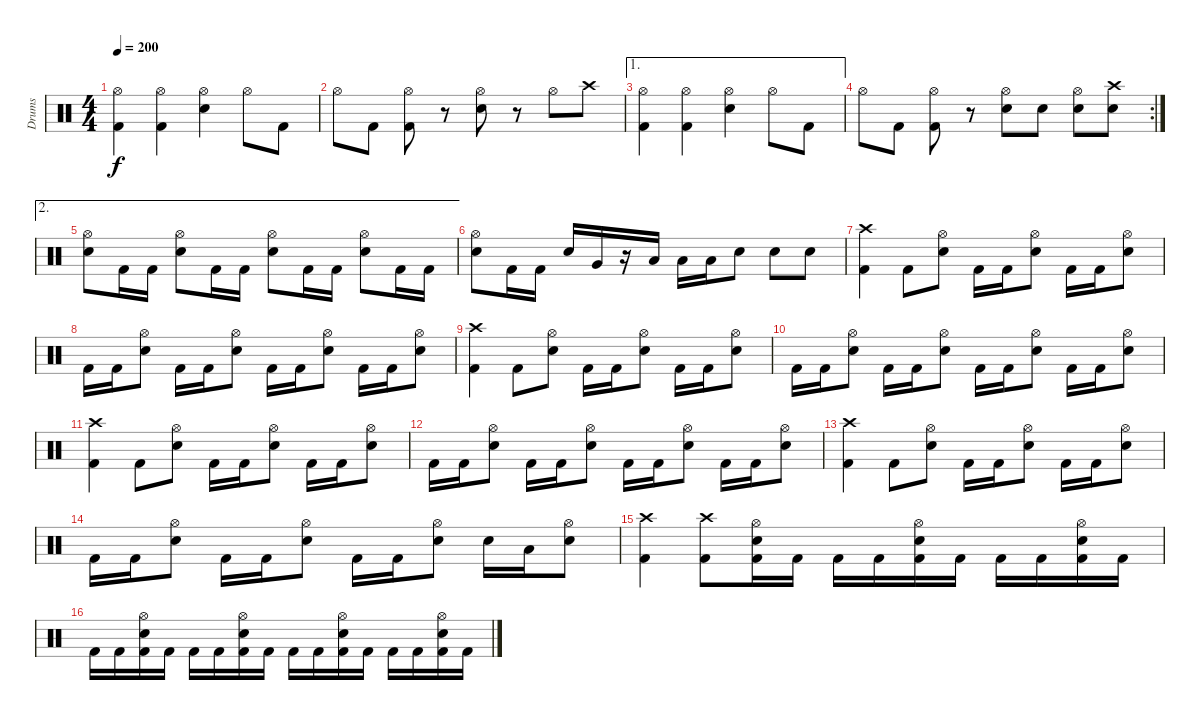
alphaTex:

\track ("Drums" "Drums") {instrument percussion}
\staff {score}
\articulation defaults
\ts (4 4)
\tempo 200
\clef neutral
\ks c
("Hi-Hat (open)" "Kick (hit) 2").4{dy f} ("Hi-Hat (open)" "Kick (hit) 2").4 ("Hi-Hat (open)" "Snare (hit) 2").4 "Hi-Hat (open)".8 "Kick (hit) 2".8 |
"Hi-Hat (open)".8 "Kick (hit) 2".8 ("Hi-Hat (open)" "Kick (hit) 2").8 r.8 ("Hi-Hat (open)" "Snare (hit) 2").8 r.8 "Hi-Hat (open)".8 "Crash high (hit)".8 |
\ae 1
("Hi-Hat (open)" "Kick (hit) 2").4 ("Hi-Hat (open)" "Kick (hit) 2").4 ("Hi-Hat (open)" "Snare (hit) 2").4 "Hi-Hat (open)".8 "Kick (hit) 2".8 |
\rc 2 "Hi-Hat (open)".8 "Kick (hit) 2".8
("Hi-Hat (open)" "Kick (hit) 2").8 r.8 ("Hi-Hat (open)" "Snare (hit) 2").8 "Snare (hit) 2".8 ("Hi-Hat (open)" "Snare (hit) 2").8 ("Crash high (hit)" "Snare (hit) 2").8 |
\ae 2
("Hi-Hat (open)" "Snare (hit) 2").8 "Kick (hit) 2".16 "Kick (hit) 2".16 ("Hi-Hat (open)" "Snare (hit) 2").8 "Kick (hit) 2".16 "Kick (hit) 2".16 ("Hi-Hat (open)" "Snare (hit) 2").8 "Kick (hit) 2".16 "Kick (hit) 2".16 ("Hi-Hat (open)" "Snare (hit) 2").8 "Kick (hit) 2".16 "Kick (hit) 2".16 |
("Hi-Hat (open)" "Snare (hit) 2").8 "Kick (hit) 2".16 "Kick (hit) 2".16 "Snare (hit) 2".16 "Very Low Tom (hit)".16 r.16 "Low Tom (hit)".16 "Low Tom (hit)".16 "Low Tom (hit)".16 "Snare (hit) 2".8 "Snare (hit) 2".8 "Snare (hit) 2".8 |
("Crash high (hit)" "Kick (hit) 2").4 "Kick (hit) 2".8 ("Hi-Hat (open)" "Snare (hit) 2").8 "Kick (hit) 2".16 "Kick (hit) 2".16 ("Hi-Hat (open)" "Snare (hit) 2").8 "Kick (hit) 2".16 "Kick (hit) 2".16 ("Hi-Hat (open)" "Snare (hit) 2").8 |
"Kick (hit) 2".16 "Kick (hit) 2".16 ("Hi-Hat (open)" "Snare (hit) 2").8 "Kick (hit) 2".16 "Kick (hit) 2".16 ("Hi-Hat (open)" "Snare (hit) 2").8 "Kick (hit) 2".16 "Kick (hit) 2".16 ("Hi-Hat (open)" "Snare (hit) 2").8 "Kick (hit) 2".16 "Kick (hit) 2".16 ("Hi-Hat (open)" "Snare (hit) 2").8 |
("Crash high (hit)" "Kick (hit) 2").4 "Kick (hit) 2".8 ("Hi-Hat (open)" "Snare (hit) 2").8 "Kick (hit) 2".16 "Kick (hit) 2".16 ("Hi-Hat (open)" "Snare (hit) 2").8 "Kick (hit) 2".16 "Kick (hit) 2".16 ("Hi-Hat (open)" "Snare (hit) 2").8 |
"Kick (hit) 2".16 "Kick (hit) 2".16 ("Hi-Hat (open)" "Snare (hit) 2").8 "Kick (hit) 2".16 "Kick (hit) 2".16 ("Hi-Hat (open)" "Snare (hit) 2").8 "Kick (hit) 2".16 "Kick (hit) 2".16 ("Hi-Hat (open)" "Snare (hit) 2").8 "Kick (hit) 2".16 "Kick (hit) 2".16 ("Hi-Hat (open)" "Snare (hit) 2").8 |
("Crash high (hit)" "Kick (hit) 2").4 "Kick (hit) 2".8 ("Hi-Hat (open)" "Snare (hit) 2").8 "Kick (hit) 2".16 "Kick (hit) 2".16 ("Hi-Hat (open)" "Snare (hit) 2").8 "Kick (hit) 2".16 "Kick (hit) 2".16 ("Hi-Hat (open)" "Snare (hit) 2").8 |
"Kick (hit) 2".16 "Kick (hit) 2".16 ("Hi-Hat (open)" "Snare (hit) 2").8 "Kick (hit) 2".16 "Kick (hit) 2".16 ("Hi-Hat (open)" "Snare (hit) 2").8 "Kick (hit) 2".16 "Kick (hit) 2".16 ("Hi-Hat (open)" "Snare (hit) 2").8 "Kick (hit) 2".16 "Kick (hit) 2".16 ("Hi-Hat (open)" "Snare (hit) 2").8 |
("Crash high (hit)" "Kick (hit) 2").4 "Kick (hit) 2".8 ("Hi-Hat (open)" "Snare (hit) 2").8 "Kick (hit) 2".16 "Kick (hit) 2".16 ("Hi-Hat (open)" "Snare (hit) 2").8 "Kick (hit) 2".16 "Kick (hit) 2".16 ("Hi-Hat (open)" "Snare (hit) 2").8 |
"Kick (hit) 2".16 "Kick (hit) 2".16 ("Hi-Hat (open)" "Snare (hit) 2").8 "Kick (hit) 2".16 "Kick (hit) 2".16 ("Hi-Hat (open)" "Snare (hit) 2").8 "Kick (hit) 2".16 "Kick (hit) 2".16 ("Hi-Hat (open)" "Snare (hit) 2").8 "Snare (hit) 2".16 "Low Tom (hit)".16 ("Hi-Hat (open)" "Snare (hit) 2").8 |
("Crash high (hit)" "Kick (hit) 2").4 ("Crash high (hit)" "Kick (hit) 2").8 ("Hi-Hat (open)" "Snare (hit) 2" "Kick (hit) 2").16 "Kick (hit) 2".16 "Kick (hit) 2".16 "Kick (hit) 2".16 ("Hi-Hat (open)" "Snare (hit) 2" "Kick (hit) 2").16 "Kick (hit) 2".16 "Kick (hit) 2".16 "Kick (hit) 2".16 ("Hi-Hat (open)" "Snare (hit) 2" "Kick (hit) 2").16 "Kick (hit) 2".16 |
"Kick (hit) 2".16 "Kick (hit) 2".16 ("Hi-Hat (open)" "Snare (hit) 2" "Kick (hit) 2").16 "Kick (hit) 2".16 "Kick (hit) 2".16 "Kick (hit) 2".16 ("Hi-Hat (open)" "Snare (hit) 2" "Kick (hit) 2").16 "Kick (hit) 2".16 "Kick (hit) 2".16 "Kick (hit) 2".16 ("Hi-Hat (open)" "Snare (hit) 2" "Kick (hit) 2").16 "Kick (hit) 2".16 "Kick (hit) 2".16 "Kick (hit) 2".16 ("Hi-Hat (open)" "Snare (hit) 2" "Kick (hit) 2").16 "Kick (hit) 2".16
